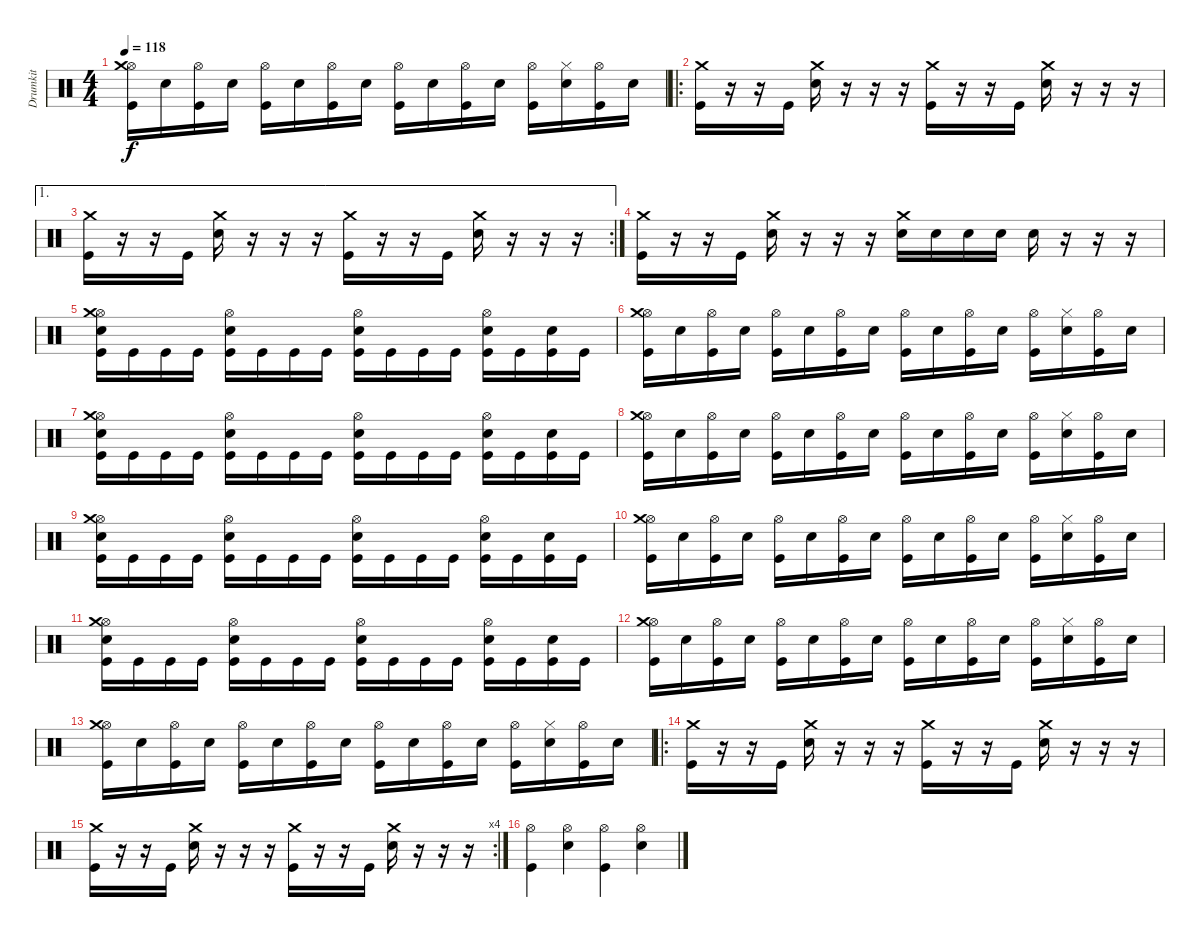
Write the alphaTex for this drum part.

\track ("Drumkit" "Drumkit") {instrument percussion}
\staff {score}
\articulation defaults
\ts (4 4)
\tempo 118
\clef neutral
\ks c
("Hi-Hat (open)" "Kick (hit)" "Crash medium (hit)").16{dy f} "Snare (hit) 2".16 ("Hi-Hat (open)" "Kick (hit)").16 "Snare (hit) 2".16 ("Hi-Hat (open)" "Kick (hit)").16 "Snare (hit) 2".16 ("Hi-Hat (open)" "Kick (hit)").16 "Snare (hit) 2".16 ("Hi-Hat (open)" "Kick (hit)").16 "Snare (hit) 2".16 ("Hi-Hat (open)" "Kick (hit)").16 "Snare (hit) 2".16 ("Hi-Hat (open)" "Kick (hit)").16 ("Hi-Hat (closed)" "Snare (hit) 2").16 ("Hi-Hat (open)" "Kick (hit)").16 "Snare (hit) 2".16 |
\ro
("Crash medium (hit)" "Kick (hit)").16 r.16 r.16 "Kick (hit)".16 ("Crash medium (hit)" "Snare (hit) 2").16 r.16 r.16 r.16 ("Crash medium (hit)" "Kick (hit)").16 r.16 r.16 "Kick (hit)".16 ("Crash medium (hit)" "Snare (hit) 2").16 r.16 r.16 r.16 |
\ae 1
\rc 2
("Crash medium (hit)" "Kick (hit)").16 r.16 r.16 "Kick (hit)".16 ("Crash medium (hit)" "Snare (hit) 2").16 r.16 r.16 r.16 ("Crash medium (hit)" "Kick (hit)").16 r.16 r.16 "Kick (hit)".16 ("Crash medium (hit)" "Snare (hit) 2").16 r.16 r.16 r.16 |
("Crash medium (hit)" "Kick (hit)").16 r.16 r.16 "Kick (hit)".16 ("Crash medium (hit)" "Snare (hit) 2").16 r.16 r.16 r.16 ("Crash medium (hit)" "Snare (hit) 2").16 "Snare (hit) 2".16 "Snare (hit) 2".16 "Snare (hit) 2".16 "Snare (hit) 2".16 r.16 r.16 r.16 |
("Kick (hit)" "Hi-Hat (open)" "Snare (hit) 2" "Crash medium (hit)").16 "Kick (hit)".16 "Kick (hit)".16 "Kick (hit)".16 ("Kick (hit)" "Snare (hit) 2" "Hi-Hat (open)").16 "Kick (hit)".16 "Kick (hit)".16 "Kick (hit)".16 ("Kick (hit)" "Hi-Hat (open)" "Snare (hit) 2").16 "Kick (hit)".16 "Kick (hit)".16 "Kick (hit)".16 ("Kick (hit)" "Snare (hit) 2" "Hi-Hat (open)").16 "Kick (hit)".16 ("Kick (hit)" "Snare (hit) 2").16 "Kick (hit)".16 |
("Hi-Hat (open)" "Kick (hit)" "Crash medium (hit)").16 "Snare (hit) 2".16 ("Hi-Hat (open)" "Kick (hit)").16 "Snare (hit) 2".16 ("Hi-Hat (open)" "Kick (hit)").16 "Snare (hit) 2".16 ("Hi-Hat (open)" "Kick (hit)").16 "Snare (hit) 2".16 ("Hi-Hat (open)" "Kick (hit)").16 "Snare (hit) 2".16 ("Hi-Hat (open)" "Kick (hit)").16 "Snare (hit) 2".16 ("Hi-Hat (open)" "Kick (hit)").16 ("Hi-Hat (closed)" "Snare (hit) 2").16 ("Hi-Hat (open)" "Kick (hit)").16 "Snare (hit) 2".16 |
("Kick (hit)" "Hi-Hat (open)" "Snare (hit) 2" "Crash medium (hit)").16 "Kick (hit)".16 "Kick (hit)".16 "Kick (hit)".16 ("Kick (hit)" "Snare (hit) 2" "Hi-Hat (open)").16 "Kick (hit)".16 "Kick (hit)".16 "Kick (hit)".16 ("Kick (hit)" "Hi-Hat (open)" "Snare (hit) 2").16 "Kick (hit)".16 "Kick (hit)".16 "Kick (hit)".16 ("Kick (hit)" "Snare (hit) 2" "Hi-Hat (open)").16 "Kick (hit)".16 ("Kick (hit)" "Snare (hit) 2").16 "Kick (hit)".16 |
("Hi-Hat (open)" "Kick (hit)" "Crash medium (hit)").16 "Snare (hit) 2".16 ("Hi-Hat (open)" "Kick (hit)").16 "Snare (hit) 2".16 ("Hi-Hat (open)" "Kick (hit)").16 "Snare (hit) 2".16 ("Hi-Hat (open)" "Kick (hit)").16 "Snare (hit) 2".16 ("Hi-Hat (open)" "Kick (hit)").16 "Snare (hit) 2".16 ("Hi-Hat (open)" "Kick (hit)").16 "Snare (hit) 2".16 ("Hi-Hat (open)" "Kick (hit)").16 ("Hi-Hat (closed)" "Snare (hit) 2").16 ("Hi-Hat (open)" "Kick (hit)").16 "Snare (hit) 2".16 |
("Kick (hit)" "Hi-Hat (open)" "Snare (hit) 2" "Crash medium (hit)").16 "Kick (hit)".16 "Kick (hit)".16 "Kick (hit)".16 ("Kick (hit)" "Snare (hit) 2" "Hi-Hat (open)").16 "Kick (hit)".16 "Kick (hit)".16 "Kick (hit)".16 ("Kick (hit)" "Hi-Hat (open)" "Snare (hit) 2").16 "Kick (hit)".16 "Kick (hit)".16 "Kick (hit)".16 ("Kick (hit)" "Snare (hit) 2" "Hi-Hat (open)").16 "Kick (hit)".16 ("Kick (hit)" "Snare (hit) 2").16 "Kick (hit)".16 |
("Hi-Hat (open)" "Kick (hit)" "Crash medium (hit)").16 "Snare (hit) 2".16 ("Hi-Hat (open)" "Kick (hit)").16 "Snare (hit) 2".16 ("Hi-Hat (open)" "Kick (hit)").16 "Snare (hit) 2".16 ("Hi-Hat (open)" "Kick (hit)").16 "Snare (hit) 2".16 ("Hi-Hat (open)" "Kick (hit)").16 "Snare (hit) 2".16 ("Hi-Hat (open)" "Kick (hit)").16 "Snare (hit) 2".16 ("Hi-Hat (open)" "Kick (hit)").16 ("Hi-Hat (closed)" "Snare (hit) 2").16 ("Hi-Hat (open)" "Kick (hit)").16 "Snare (hit) 2".16 |
("Kick (hit)" "Hi-Hat (open)" "Snare (hit) 2" "Crash medium (hit)").16 "Kick (hit)".16 "Kick (hit)".16 "Kick (hit)".16 ("Kick (hit)" "Snare (hit) 2" "Hi-Hat (open)").16 "Kick (hit)".16 "Kick (hit)".16 "Kick (hit)".16 ("Kick (hit)" "Hi-Hat (open)" "Snare (hit) 2").16 "Kick (hit)".16 "Kick (hit)".16 "Kick (hit)".16 ("Kick (hit)" "Snare (hit) 2" "Hi-Hat (open)").16 "Kick (hit)".16 ("Kick (hit)" "Snare (hit) 2").16 "Kick (hit)".16 |
("Hi-Hat (open)" "Kick (hit)" "Crash medium (hit)").16 "Snare (hit) 2".16 ("Hi-Hat (open)" "Kick (hit)").16 "Snare (hit) 2".16 ("Hi-Hat (open)" "Kick (hit)").16 "Snare (hit) 2".16 ("Hi-Hat (open)" "Kick (hit)").16 "Snare (hit) 2".16 ("Hi-Hat (open)" "Kick (hit)").16 "Snare (hit) 2".16 ("Hi-Hat (open)" "Kick (hit)").16 "Snare (hit) 2".16 ("Hi-Hat (open)" "Kick (hit)").16 ("Hi-Hat (closed)" "Snare (hit) 2").16 ("Hi-Hat (open)" "Kick (hit)").16 "Snare (hit) 2".16 |
("Hi-Hat (open)" "Kick (hit)" "Crash medium (hit)").16 "Snare (hit) 2".16 ("Hi-Hat (open)" "Kick (hit)").16 "Snare (hit) 2".16 ("Hi-Hat (open)" "Kick (hit)").16 "Snare (hit) 2".16 ("Hi-Hat (open)" "Kick (hit)").16 "Snare (hit) 2".16 ("Hi-Hat (open)" "Kick (hit)").16 "Snare (hit) 2".16 ("Hi-Hat (open)" "Kick (hit)").16 "Snare (hit) 2".16 ("Hi-Hat (open)" "Kick (hit)").16 ("Hi-Hat (closed)" "Snare (hit) 2").16 ("Hi-Hat (open)" "Kick (hit)").16 "Snare (hit) 2".16 |
\ro
("Crash medium (hit)" "Kick (hit)").16 r.16 r.16 "Kick (hit)".16 ("Crash medium (hit)" "Snare (hit) 2").16 r.16 r.16 r.16 ("Crash medium (hit)" "Kick (hit)").16 r.16 r.16 "Kick (hit)".16 ("Crash medium (hit)" "Snare (hit) 2").16 r.16 r.16 r.16 |
\rc 4
("Crash medium (hit)" "Kick (hit)").16 r.16 r.16 "Kick (hit)".16 ("Crash medium (hit)" "Snare (hit) 2").16 r.16 r.16 r.16 ("Crash medium (hit)" "Kick (hit)").16 r.16 r.16 "Kick (hit)".16 ("Crash medium (hit)" "Snare (hit) 2").16 r.16 r.16 r.16 |
("Hi-Hat (open)" "Kick (hit)").4 ("Hi-Hat (open)" "Snare (hit) 2").4 ("Hi-Hat (open)" "Kick (hit)").4 ("Hi-Hat (open)" "Snare (hit) 2").4
